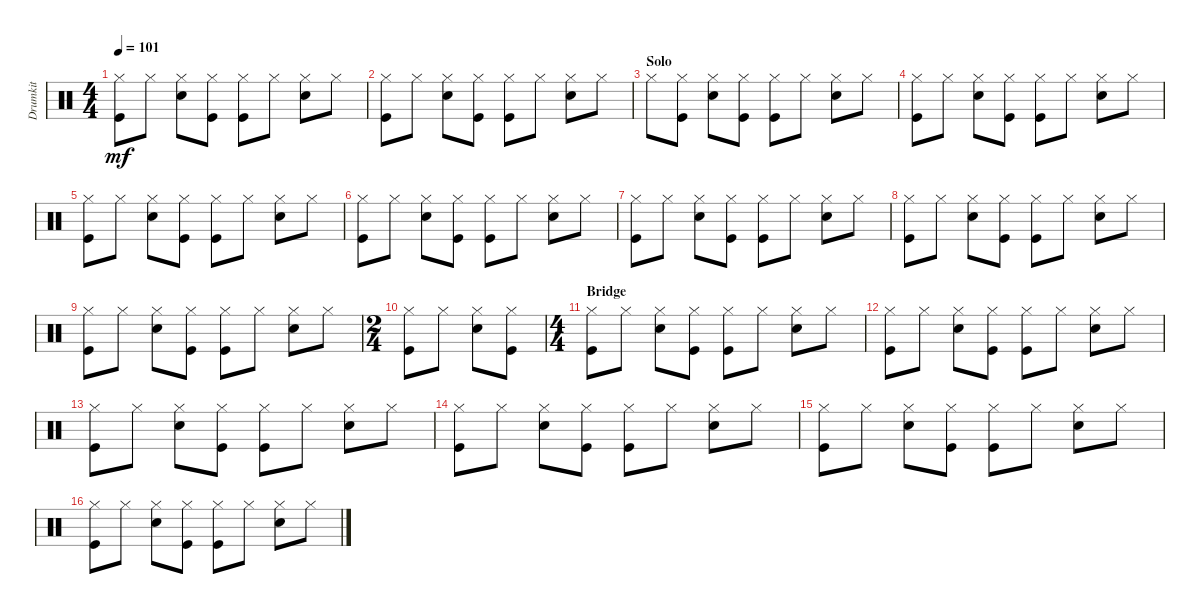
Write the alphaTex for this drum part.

\track ("Drumkit" "Drumkit") {instrument percussion}
\staff {score}
\articulation defaults
\ts (4 4)
\tempo 101
\clef neutral
\ks c
("Kick (hit)" "Hi-Hat (closed)").8{dy mf} "Hi-Hat (closed)".8 ("Hi-Hat (closed)" "Snare (hit) 2").8 ("Hi-Hat (closed)" "Kick (hit)").8 ("Hi-Hat (closed)" "Kick (hit)").8 "Hi-Hat (closed)".8 ("Hi-Hat (closed)" "Snare (hit) 2").8 "Hi-Hat (closed)".8 |
("Kick (hit)" "Hi-Hat (closed)").8 "Hi-Hat (closed)".8 ("Hi-Hat (closed)" "Snare (hit) 2").8 ("Hi-Hat (closed)" "Kick (hit)").8 ("Hi-Hat (closed)" "Kick (hit)").8 "Hi-Hat (closed)".8 ("Hi-Hat (closed)" "Snare (hit) 2").8 "Hi-Hat (closed)".8 |
\section ("" "Solo")
"Hi-Hat (closed)".8 ("Hi-Hat (closed)" "Kick (hit)").8 ("Hi-Hat (closed)" "Snare (hit) 2").8 ("Hi-Hat (closed)" "Kick (hit)").8 ("Hi-Hat (closed)" "Kick (hit)").8 "Hi-Hat (closed)".8 ("Hi-Hat (closed)" "Snare (hit) 2").8 "Hi-Hat (closed)".8 |
("Kick (hit)" "Hi-Hat (closed)").8 "Hi-Hat (closed)".8 ("Hi-Hat (closed)" "Snare (hit) 2").8 ("Hi-Hat (closed)" "Kick (hit)").8 ("Hi-Hat (closed)" "Kick (hit)").8 "Hi-Hat (closed)".8 ("Hi-Hat (closed)" "Snare (hit) 2").8 "Hi-Hat (closed)".8 |
("Kick (hit)" "Hi-Hat (closed)").8 "Hi-Hat (closed)".8 ("Hi-Hat (closed)" "Snare (hit) 2").8 ("Hi-Hat (closed)" "Kick (hit)").8 ("Hi-Hat (closed)" "Kick (hit)").8 "Hi-Hat (closed)".8 ("Hi-Hat (closed)" "Snare (hit) 2").8 "Hi-Hat (closed)".8 |
("Kick (hit)" "Hi-Hat (closed)").8 "Hi-Hat (closed)".8 ("Hi-Hat (closed)" "Snare (hit) 2").8 ("Hi-Hat (closed)" "Kick (hit)").8 ("Hi-Hat (closed)" "Kick (hit)").8 "Hi-Hat (closed)".8 ("Hi-Hat (closed)" "Snare (hit) 2").8 "Hi-Hat (closed)".8 |
("Hi-Hat (closed)" "Kick (hit)").8 "Hi-Hat (closed)".8 ("Hi-Hat (closed)" "Snare (hit) 2").8 ("Hi-Hat (closed)" "Kick (hit)").8 ("Hi-Hat (closed)" "Kick (hit)").8 "Hi-Hat (closed)".8 ("Hi-Hat (closed)" "Snare (hit) 2").8 "Hi-Hat (closed)".8 |
("Kick (hit)" "Hi-Hat (closed)").8 "Hi-Hat (closed)".8 ("Hi-Hat (closed)" "Snare (hit) 2").8 ("Hi-Hat (closed)" "Kick (hit)").8 ("Hi-Hat (closed)" "Kick (hit)").8 "Hi-Hat (closed)".8 ("Hi-Hat (closed)" "Snare (hit) 2").8 "Hi-Hat (closed)".8 |
("Kick (hit)" "Hi-Hat (closed)").8 "Hi-Hat (closed)".8 ("Hi-Hat (closed)" "Snare (hit) 2").8 ("Hi-Hat (closed)" "Kick (hit)").8 ("Hi-Hat (closed)" "Kick (hit)").8 "Hi-Hat (closed)".8 ("Hi-Hat (closed)" "Snare (hit) 2").8 "Hi-Hat (closed)".8 |
\ts (2 4)
("Kick (hit)" "Hi-Hat (closed)").8 "Hi-Hat (closed)".8 ("Hi-Hat (closed)" "Snare (hit) 2").8 ("Hi-Hat (closed)" "Kick (hit)").8 |
\ts (4 4)
\section ("" "Bridge")
("Kick (hit)" "Hi-Hat (closed)").8 "Hi-Hat (closed)".8 ("Hi-Hat (closed)" "Snare (hit) 2").8 ("Hi-Hat (closed)" "Kick (hit)").8 ("Hi-Hat (closed)" "Kick (hit)").8 "Hi-Hat (closed)".8 ("Hi-Hat (closed)" "Snare (hit) 2").8 "Hi-Hat (closed)".8 |
("Kick (hit)" "Hi-Hat (closed)").8 "Hi-Hat (closed)".8 ("Hi-Hat (closed)" "Snare (hit) 2").8 ("Hi-Hat (closed)" "Kick (hit)").8 ("Hi-Hat (closed)" "Kick (hit)").8 "Hi-Hat (closed)".8 ("Hi-Hat (closed)" "Snare (hit) 2").8 "Hi-Hat (closed)".8 |
("Kick (hit)" "Hi-Hat (closed)").8 "Hi-Hat (closed)".8 ("Hi-Hat (closed)" "Snare (hit) 2").8 ("Hi-Hat (closed)" "Kick (hit)").8 ("Hi-Hat (closed)" "Kick (hit)").8 "Hi-Hat (closed)".8 ("Hi-Hat (closed)" "Snare (hit) 2").8 "Hi-Hat (closed)".8 |
("Kick (hit)" "Hi-Hat (closed)").8 "Hi-Hat (closed)".8 ("Hi-Hat (closed)" "Snare (hit) 2").8 ("Hi-Hat (closed)" "Kick (hit)").8 ("Hi-Hat (closed)" "Kick (hit)").8 "Hi-Hat (closed)".8 ("Hi-Hat (closed)" "Snare (hit) 2").8 "Hi-Hat (closed)".8 |
("Kick (hit)" "Hi-Hat (closed)").8 "Hi-Hat (closed)".8 ("Hi-Hat (closed)" "Snare (hit) 2").8 ("Hi-Hat (closed)" "Kick (hit)").8 ("Hi-Hat (closed)" "Kick (hit)").8 "Hi-Hat (closed)".8 ("Hi-Hat (closed)" "Snare (hit) 2").8 "Hi-Hat (closed)".8 |
("Kick (hit)" "Hi-Hat (closed)").8 "Hi-Hat (closed)".8 ("Hi-Hat (closed)" "Snare (hit) 2").8 ("Hi-Hat (closed)" "Kick (hit)").8 ("Hi-Hat (closed)" "Kick (hit)").8 "Hi-Hat (closed)".8 ("Hi-Hat (closed)" "Snare (hit) 2").8 "Hi-Hat (closed)".8
